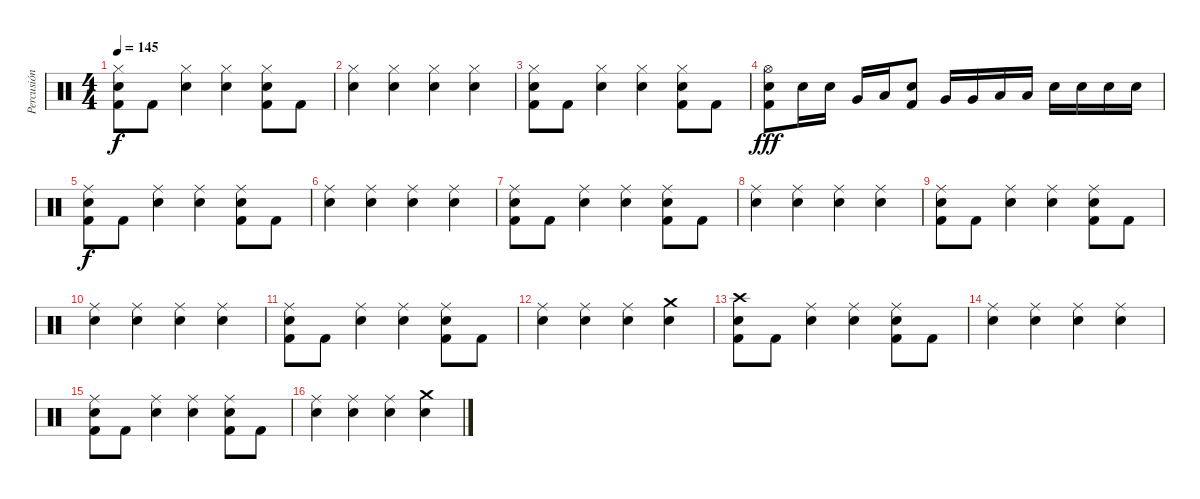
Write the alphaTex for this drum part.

\track ("Percusión" "Percusión") {instrument percussion}
\staff {score}
\articulation defaults
\ts (4 4)
\tempo 145
\clef neutral
\ks c
("Hi-Hat (closed)" "Snare (hit) 2" "Kick (hit) 2").8{dy f} "Kick (hit) 2".8 ("Hi-Hat (closed)" "Snare (hit) 2").4 ("Hi-Hat (closed)" "Snare (hit) 2").4 ("Hi-Hat (closed)" "Snare (hit) 2" "Kick (hit) 2").8 "Kick (hit) 2".8 |
("Hi-Hat (closed)" "Snare (hit) 2").4 ("Hi-Hat (closed)" "Snare (hit) 2").4 ("Hi-Hat (closed)" "Snare (hit) 2").4 ("Hi-Hat (closed)" "Snare (hit) 2").4 |
("Hi-Hat (closed)" "Snare (hit) 2" "Kick (hit) 2").8 "Kick (hit) 2".8 ("Hi-Hat (closed)" "Snare (hit) 2").4 ("Hi-Hat (closed)" "Snare (hit) 2").4 ("Hi-Hat (closed)" "Snare (hit) 2" "Kick (hit) 2").8 "Kick (hit) 2".8 |
("Hi-Hat (open)" "Snare (hit) 2" "Kick (hit) 2").8{dy fff} "Snare (hit) 2".16 "Snare (hit) 2".16 "Very Low Tom (hit)".16 "Low Tom (hit)".16 ("Snare (hit) 2" "Kick (hit) 2").8 "Very Low Tom (hit)".16 "Very Low Tom (hit)".16 "Low Tom (hit)".16 "Low Tom (hit)".16 "Snare (hit) 2".16 "Snare (hit) 2".16 "Snare (hit) 2".16 "Snare (hit) 2".16 |
("Ride (middle)" "Snare (hit) 2" "Kick (hit) 2").8{dy f} "Kick (hit) 2".8 ("Ride (middle)" "Snare (hit) 2").4 ("Ride (middle)" "Snare (hit) 2").4 ("Ride (middle)" "Snare (hit) 2" "Kick (hit) 2").8 "Kick (hit) 2".8 |
("Ride (middle)" "Snare (hit) 2").4 ("Ride (middle)" "Snare (hit) 2").4 ("Ride (middle)" "Snare (hit) 2").4 ("Ride (middle)" "Snare (hit) 2").4 |
("Ride (middle)" "Snare (hit) 2" "Kick (hit) 2").8 "Kick (hit) 2".8 ("Ride (middle)" "Snare (hit) 2").4 ("Ride (middle)" "Snare (hit) 2").4 ("Ride (middle)" "Snare (hit) 2" "Kick (hit) 2").8 "Kick (hit) 2".8 |
("Ride (middle)" "Snare (hit) 2").4 ("Ride (middle)" "Snare (hit) 2").4 ("Ride (middle)" "Snare (hit) 2").4 ("Ride (middle)" "Snare (hit) 2").4 |
("Ride (middle)" "Snare (hit) 2" "Kick (hit) 2").8 "Kick (hit) 2".8 ("Ride (middle)" "Snare (hit) 2").4 ("Ride (middle)" "Snare (hit) 2").4 ("Ride (middle)" "Snare (hit) 2" "Kick (hit) 2").8 "Kick (hit) 2".8 |
("Ride (middle)" "Snare (hit) 2").4 ("Ride (middle)" "Snare (hit) 2").4 ("Ride (middle)" "Snare (hit) 2").4 ("Ride (middle)" "Snare (hit) 2").4 |
("Ride (middle)" "Snare (hit) 2" "Kick (hit) 2").8 "Kick (hit) 2".8 ("Ride (middle)" "Snare (hit) 2").4 ("Ride (middle)" "Snare (hit) 2").4 ("Ride (middle)" "Snare (hit) 2" "Kick (hit) 2").8 "Kick (hit) 2".8 |
("Ride (middle)" "Snare (hit) 2").4 ("Ride (middle)" "Snare (hit) 2").4 ("Ride (middle)" "Snare (hit) 2").4 ("Crash medium (hit)" "Snare (hit) 2").4 |
("Crash high (hit)" "Snare (hit) 2" "Kick (hit) 2").8 "Kick (hit) 2".8 ("Ride (middle)" "Snare (hit) 2").4 ("Ride (middle)" "Snare (hit) 2").4 ("Ride (middle)" "Snare (hit) 2" "Kick (hit) 2").8 "Kick (hit) 2".8 |
("Ride (middle)" "Snare (hit) 2").4 ("Ride (middle)" "Snare (hit) 2").4 ("Ride (middle)" "Snare (hit) 2").4 ("Ride (middle)" "Snare (hit) 2").4 |
("Ride (middle)" "Snare (hit) 2" "Kick (hit) 2").8 "Kick (hit) 2".8 ("Ride (middle)" "Snare (hit) 2").4 ("Ride (middle)" "Snare (hit) 2").4 ("Ride (middle)" "Snare (hit) 2" "Kick (hit) 2").8 "Kick (hit) 2".8 |
("Ride (middle)" "Snare (hit) 2").4 ("Ride (middle)" "Snare (hit) 2").4 ("Ride (middle)" "Snare (hit) 2").4 ("Crash medium (hit)" "Snare (hit) 2").4
